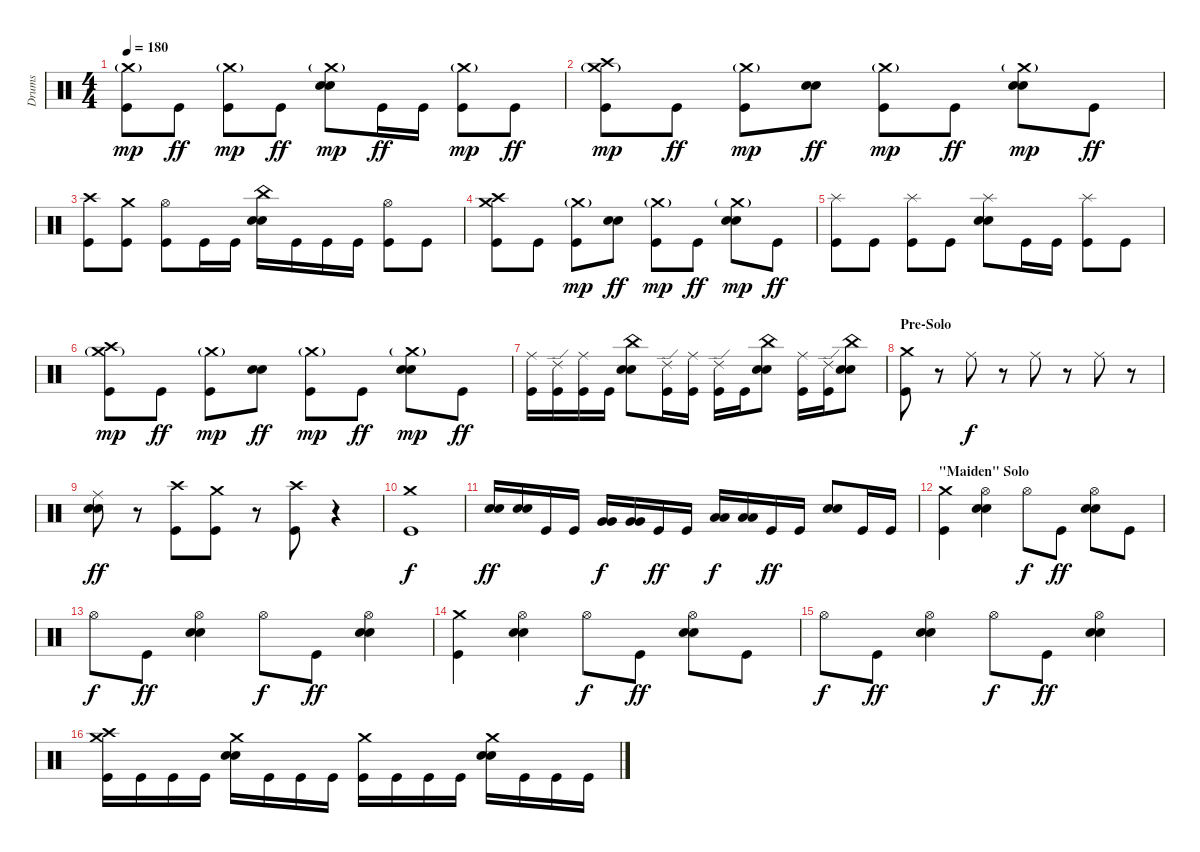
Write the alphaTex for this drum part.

\track ("Drums" "Drums") {instrument percussion}
\staff {score}
\articulation defaults
\ts (4 4)
\tempo 180
\clef neutral
\ks c
("Kick (hit)" "Crash medium (hit)"{g}).8{dy mp} "Kick (hit)".8{dy ff} ("Kick (hit)" "Crash medium (hit)"{g}).8{dy mp} "Kick (hit)".8{dy ff} ("Electric Snare (hit)" "Electric Snare (hit)" "Crash medium (hit)"{g}).8{dy mp} "Kick (hit)".16{dy ff} "Kick (hit)".16 ("Kick (hit)" "Crash medium (hit)"{g}).8{dy mp} "Kick (hit)".8{dy ff} |
("Kick (hit)" "Crash high (hit)" "Crash medium (hit)"{g}).8{dy mp} "Kick (hit)".8{dy ff} ("Kick (hit)" "Crash medium (hit)"{g}).8{dy mp} ("Electric Snare (hit)" "Electric Snare (hit)").8{dy ff} ("Kick (hit)" "Crash medium (hit)"{g}).8{dy mp} "Kick (hit)".8{dy ff} ("Electric Snare (hit)" "Electric Snare (hit)" "Crash medium (hit)"{g}).8{dy mp} "Kick (hit)".8{dy ff} |
("Kick (hit)" "Crash high (hit)").8 ("Kick (hit)" "Crash medium (hit)").8 ("Kick (hit)" "Hi-Hat (open)").8 "Kick (hit)".16 "Kick (hit)".16 ("Electric Snare (hit)" "Electric Snare (hit)" "China (hit)").16 "Kick (hit)".16 "Kick (hit)".16 "Kick (hit)".16 ("Kick (hit)" "Hi-Hat (open)").8 "Kick (hit)".8 |
("Kick (hit)" "Crash high (hit)" "Crash medium (hit)").8 "Kick (hit)".8 ("Kick (hit)" "Crash medium (hit)"{g}).8{dy mp} ("Electric Snare (hit)" "Electric Snare (hit)").8{dy ff} ("Kick (hit)" "Crash medium (hit)"{g}).8{dy mp} "Kick (hit)".8{dy ff} ("Electric Snare (hit)" "Electric Snare (hit)" "Crash medium (hit)"{g}).8{dy mp} "Kick (hit)".8{dy ff} |
("Kick (hit)" "Splash (hit)").8 "Kick (hit)".8 ("Kick (hit)" "Splash (hit)").8 "Kick (hit)".8 ("Electric Snare (hit)" "Electric Snare (hit)" "Splash (hit)").8 "Kick (hit)".16 "Kick (hit)".16 ("Kick (hit)" "Splash (hit)").8 "Kick (hit)".8 |
("Kick (hit)" "Crash high (hit)" "Crash medium (hit)"{g}).8{dy mp} "Kick (hit)".8{dy ff} ("Kick (hit)" "Crash medium (hit)"{g}).8{dy mp} ("Electric Snare (hit)" "Electric Snare (hit)").8{dy ff} ("Kick (hit)" "Crash medium (hit)"{g}).8{dy mp} "Kick (hit)".8{dy ff} ("Electric Snare (hit)" "Electric Snare (hit)" "Crash medium (hit)"{g}).8{dy mp} "Kick (hit)".8{dy ff} |
("Kick (hit)" "Ride (middle)").16 ("Kick (hit)" "Ride (edge) 2").16 ("Kick (hit)" "Ride (middle)").16 "Kick (hit)".16 ("Electric Snare (hit)" "Electric Snare (hit)" "China (hit)").8 ("Kick (hit)" "Ride (edge) 2").16 ("Kick (hit)" "Ride (middle)").16 ("Kick (hit)" "Ride (edge) 2").16 "Kick (hit)".16 ("Electric Snare (hit)" "Electric Snare (hit)" "China (hit)").8 ("Kick (hit)" "Ride (middle)").16 ("Kick (hit)" "Ride (edge) 2").16 ("Electric Snare (hit)" "Electric Snare (hit)" "China (hit)").8 |
\section ("" "Pre-Solo")
("Kick (hit)" "Crash medium (hit)").8 r.8 "Ride (middle)".8{dy f} r.8 "Ride (middle)".8 r.8 "Ride (middle)".8 r.8 |
("Electric Snare (hit)" "Electric Snare (hit)" "Ride (middle)").8{dy ff} r.8 ("Kick (hit)" "Crash high (hit)").8 ("Kick (hit)" "Crash medium (hit)").8 r.8{volume 0} ("Kick (hit)" "Crash high (hit)").8{volume 15} r.4{volume 0} |
("Kick (hit)" "Crash medium (hit)").1{dy f volume 15} |
("Electric Snare (hit)" "Electric Snare (hit)").16{dy ff} ("Electric Snare (hit)" "Electric Snare (hit)").16 "Kick (hit)".16 "Kick (hit)".16 ("Very Low Tom (hit)" "Very Low Tom (hit)").16{dy f} ("Very Low Tom (hit)" "Very Low Tom (hit)").16 "Kick (hit)".16{dy ff} "Kick (hit)".16 ("Low Floor Tom (hit)" "Low Floor Tom (hit)").16{dy f} ("Low Floor Tom (hit)" "Low Floor Tom (hit)").16 "Kick (hit)".16{dy ff} "Kick (hit)".16 ("Electric Snare (hit)" "Electric Snare (hit)").8 "Kick (hit)".16 "Kick (hit)".16 |
\section ("" "\"Maiden\" Solo")
("Kick (hit)" "Crash medium (hit)").4 ("Electric Snare (hit)" "Electric Snare (hit)" "Hi-Hat (open)").4 "Hi-Hat (open)".8{dy f} "Kick (hit)".8{dy ff} ("Electric Snare (hit)" "Electric Snare (hit)" "Hi-Hat (open)").8 "Kick (hit)".8 |
"Hi-Hat (open)".8{dy f} "Kick (hit)".8{dy ff} ("Electric Snare (hit)" "Electric Snare (hit)" "Hi-Hat (open)").4 "Hi-Hat (open)".8{dy f} "Kick (hit)".8{dy ff} ("Electric Snare (hit)" "Electric Snare (hit)" "Hi-Hat (open)").4 |
("Kick (hit)" "Crash medium (hit)").4 ("Electric Snare (hit)" "Electric Snare (hit)" "Hi-Hat (open)").4 "Hi-Hat (open)".8{dy f} "Kick (hit)".8{dy ff} ("Electric Snare (hit)" "Electric Snare (hit)" "Hi-Hat (open)").8 "Kick (hit)".8 |
"Hi-Hat (open)".8{dy f} "Kick (hit)".8{dy ff} ("Electric Snare (hit)" "Electric Snare (hit)" "Hi-Hat (open)").4 "Hi-Hat (open)".8{dy f} "Kick (hit)".8{dy ff} ("Electric Snare (hit)" "Electric Snare (hit)" "Hi-Hat (open)").4 |
("Kick (hit)" "Crash high (hit)" "Crash medium (hit)").16 "Kick (hit)".16 "Kick (hit)".16 "Kick (hit)".16 ("Electric Snare (hit)" "Electric Snare (hit)" "Crash medium (hit)").16 "Kick (hit)".16 "Kick (hit)".16 "Kick (hit)".16 ("Kick (hit)" "Crash medium (hit)").16 "Kick (hit)".16 "Kick (hit)".16 "Kick (hit)".16 ("Electric Snare (hit)" "Electric Snare (hit)" "Crash medium (hit)").16 "Kick (hit)".16 "Kick (hit)".16 "Kick (hit)".16
